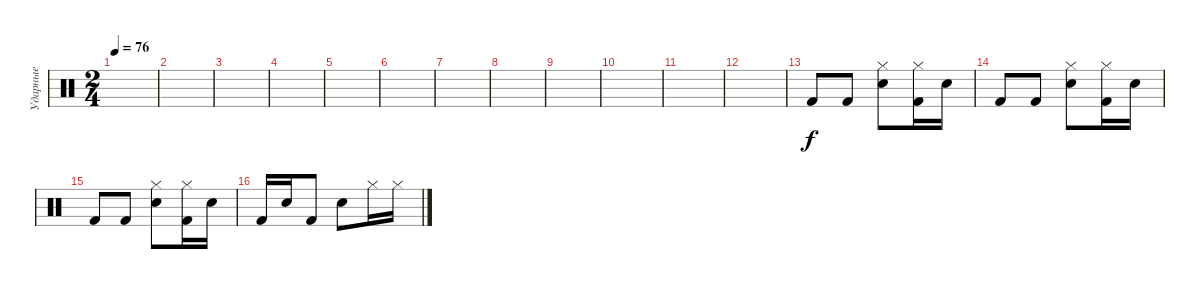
\track ("Ударные" "Ударные") {instrument percussion}
\staff {score}
\articulation defaults
\ts (2 4)
\tempo 76
\clef neutral
\ks c
|
|
|
|
|
|
|
|
|
|
|
|
"Kick (hit) 2".8 "Kick (hit) 2".8 ("Electric Snare (hit)" "Hi-Hat (closed)").8 ("Kick (hit) 2" "Hi-Hat (closed)").16 "Electric Snare (hit)".16 |
"Kick (hit) 2".8 "Kick (hit) 2".8 ("Electric Snare (hit)" "Hi-Hat (closed)").8 ("Kick (hit) 2" "Hi-Hat (closed)").16 "Electric Snare (hit)".16 |
"Kick (hit) 2".8 "Kick (hit) 2".8 ("Electric Snare (hit)" "Hi-Hat (closed)").8 ("Kick (hit) 2" "Hi-Hat (closed)").16 "Electric Snare (hit)".16 |
"Kick (hit) 2".16 "Electric Snare (hit)".16 "Kick (hit) 2".8 "Electric Snare (hit)".8 "Hi-Hat (closed)".16 "Hi-Hat (closed)".16
